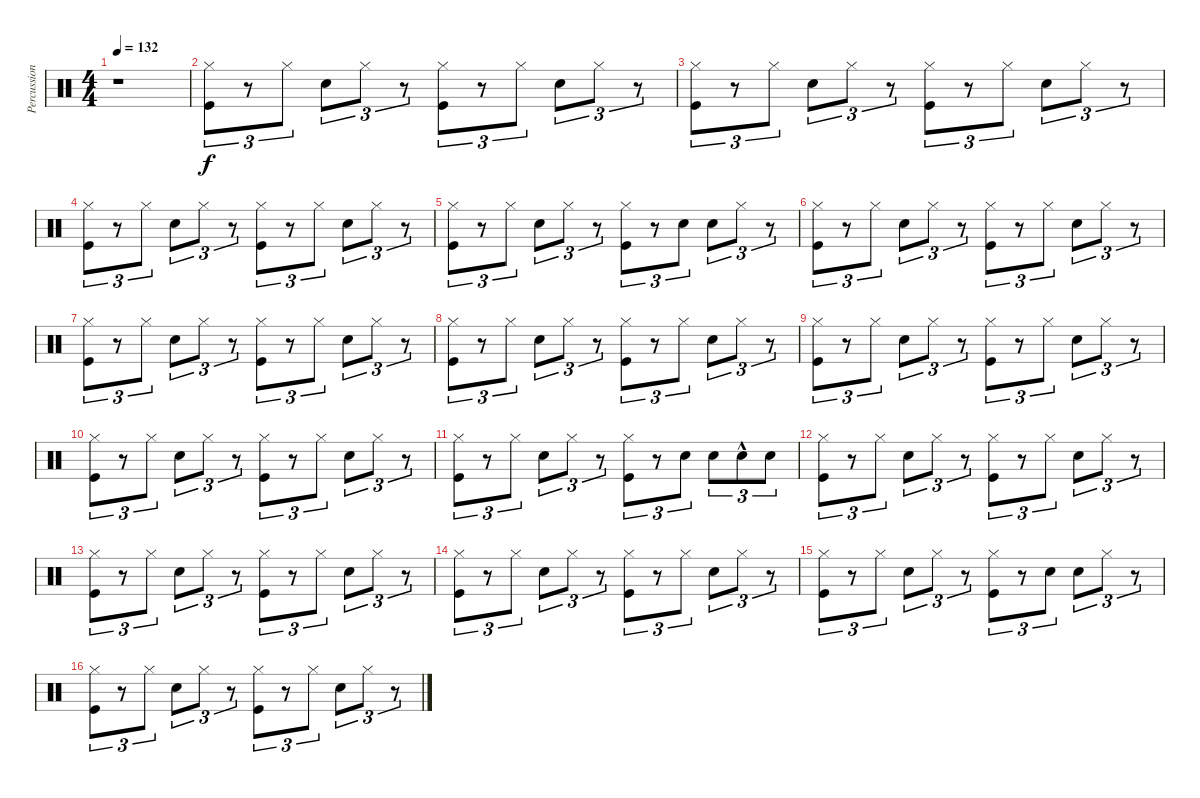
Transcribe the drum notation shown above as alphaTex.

\track ("Percussions" "Percussion") {instrument percussion}
\staff {score}
\articulation defaults
\ts (4 4)
\tempo 132
\clef neutral
\ks c
r.1{dy f} |
("Kick (hit)" "Hi-Hat (closed)").8{tu (3 2)} r.8{tu (3 2)} "Hi-Hat (closed)".8{tu (3 2)} "Snare (hit) 2".8{tu (3 2)} "Hi-Hat (closed)".8{tu (3 2)} r.8{tu (3 2)} ("Kick (hit)" "Hi-Hat (closed)").8{tu (3 2)} r.8{tu (3 2)} "Hi-Hat (closed)".8{tu (3 2)} "Snare (hit) 2".8{tu (3 2)} "Hi-Hat (closed)".8{tu (3 2)} r.8{tu (3 2)} |
("Kick (hit)" "Hi-Hat (closed)").8{tu (3 2)} r.8{tu (3 2)} "Hi-Hat (closed)".8{tu (3 2)} "Snare (hit) 2".8{tu (3 2)} "Hi-Hat (closed)".8{tu (3 2)} r.8{tu (3 2)} ("Kick (hit)" "Hi-Hat (closed)").8{tu (3 2)} r.8{tu (3 2)} "Hi-Hat (closed)".8{tu (3 2)} "Snare (hit) 2".8{tu (3 2)} "Hi-Hat (closed)".8{tu (3 2)} r.8{tu (3 2)} |
("Kick (hit)" "Hi-Hat (closed)").8{tu (3 2)} r.8{tu (3 2)} "Hi-Hat (closed)".8{tu (3 2)} "Snare (hit) 2".8{tu (3 2)} "Hi-Hat (closed)".8{tu (3 2)} r.8{tu (3 2)} ("Kick (hit)" "Hi-Hat (closed)").8{tu (3 2)} r.8{tu (3 2)} "Hi-Hat (closed)".8{tu (3 2)} "Snare (hit) 2".8{tu (3 2)} "Hi-Hat (closed)".8{tu (3 2)} r.8{tu (3 2)} |
("Kick (hit)" "Hi-Hat (closed)").8{tu (3 2)} r.8{tu (3 2)} "Hi-Hat (closed)".8{tu (3 2)} "Snare (hit) 2".8{tu (3 2)} "Hi-Hat (closed)".8{tu (3 2)} r.8{tu (3 2)} ("Kick (hit)" "Hi-Hat (closed)").8{tu (3 2)} r.8{tu (3 2)} "Snare (hit) 2".8{tu (3 2)} "Snare (hit) 2".8{tu (3 2)} "Hi-Hat (closed)".8{tu (3 2)} r.8{tu (3 2)} |
("Kick (hit)" "Hi-Hat (closed)").8{tu (3 2)} r.8{tu (3 2)} "Hi-Hat (closed)".8{tu (3 2)} "Snare (hit) 2".8{tu (3 2)} "Hi-Hat (closed)".8{tu (3 2)} r.8{tu (3 2)} ("Kick (hit)" "Hi-Hat (closed)").8{tu (3 2)} r.8{tu (3 2)} "Hi-Hat (closed)".8{tu (3 2)} "Snare (hit) 2".8{tu (3 2)} "Hi-Hat (closed)".8{tu (3 2)} r.8{tu (3 2)} |
("Kick (hit)" "Hi-Hat (closed)").8{tu (3 2)} r.8{tu (3 2)} "Hi-Hat (closed)".8{tu (3 2)} "Snare (hit) 2".8{tu (3 2)} "Hi-Hat (closed)".8{tu (3 2)} r.8{tu (3 2)} ("Kick (hit)" "Hi-Hat (closed)").8{tu (3 2)} r.8{tu (3 2)} "Hi-Hat (closed)".8{tu (3 2)} "Snare (hit) 2".8{tu (3 2)} "Hi-Hat (closed)".8{tu (3 2)} r.8{tu (3 2)} |
("Kick (hit)" "Hi-Hat (closed)").8{tu (3 2)} r.8{tu (3 2)} "Hi-Hat (closed)".8{tu (3 2)} "Snare (hit) 2".8{tu (3 2)} "Hi-Hat (closed)".8{tu (3 2)} r.8{tu (3 2)} ("Kick (hit)" "Hi-Hat (closed)").8{tu (3 2)} r.8{tu (3 2)} "Hi-Hat (closed)".8{tu (3 2)} "Snare (hit) 2".8{tu (3 2)} "Hi-Hat (closed)".8{tu (3 2)} r.8{tu (3 2)} |
("Kick (hit)" "Hi-Hat (closed)").8{tu (3 2)} r.8{tu (3 2)} "Hi-Hat (closed)".8{tu (3 2)} "Snare (hit) 2".8{tu (3 2)} "Hi-Hat (closed)".8{tu (3 2)} r.8{tu (3 2)} ("Kick (hit)" "Hi-Hat (closed)").8{tu (3 2)} r.8{tu (3 2)} "Hi-Hat (closed)".8{tu (3 2)} "Snare (hit) 2".8{tu (3 2)} "Hi-Hat (closed)".8{tu (3 2)} r.8{tu (3 2)} |
("Kick (hit)" "Hi-Hat (closed)").8{tu (3 2)} r.8{tu (3 2)} "Hi-Hat (closed)".8{tu (3 2)} "Snare (hit) 2".8{tu (3 2)} "Hi-Hat (closed)".8{tu (3 2)} r.8{tu (3 2)} ("Kick (hit)" "Hi-Hat (closed)").8{tu (3 2)} r.8{tu (3 2)} "Hi-Hat (closed)".8{tu (3 2)} "Snare (hit) 2".8{tu (3 2)} "Hi-Hat (closed)".8{tu (3 2)} r.8{tu (3 2)} |
("Kick (hit)" "Hi-Hat (closed)").8{tu (3 2)} r.8{tu (3 2)} "Hi-Hat (closed)".8{tu (3 2)} "Snare (hit) 2".8{tu (3 2)} "Hi-Hat (closed)".8{tu (3 2)} r.8{tu (3 2)} ("Kick (hit)" "Hi-Hat (closed)").8{tu (3 2)} r.8{tu (3 2)} "Snare (hit) 2".8{tu (3 2)} "Snare (hit) 2".8{tu (3 2)} "Snare (hit) 2"{hac}.8{tu (3 2)} "Snare (hit) 2".8{tu (3 2)} |
("Kick (hit)" "Hi-Hat (closed)").8{tu (3 2)} r.8{tu (3 2)} "Hi-Hat (closed)".8{tu (3 2)} "Snare (hit) 2".8{tu (3 2)} "Hi-Hat (closed)".8{tu (3 2)} r.8{tu (3 2)} ("Kick (hit)" "Hi-Hat (closed)").8{tu (3 2)} r.8{tu (3 2)} "Hi-Hat (closed)".8{tu (3 2)} "Snare (hit) 2".8{tu (3 2)} "Hi-Hat (closed)".8{tu (3 2)} r.8{tu (3 2)} |
("Kick (hit)" "Hi-Hat (closed)").8{tu (3 2)} r.8{tu (3 2)} "Hi-Hat (closed)".8{tu (3 2)} "Snare (hit) 2".8{tu (3 2)} "Hi-Hat (closed)".8{tu (3 2)} r.8{tu (3 2)} ("Kick (hit)" "Hi-Hat (closed)").8{tu (3 2)} r.8{tu (3 2)} "Hi-Hat (closed)".8{tu (3 2)} "Snare (hit) 2".8{tu (3 2)} "Hi-Hat (closed)".8{tu (3 2)} r.8{tu (3 2)} |
("Kick (hit)" "Hi-Hat (closed)").8{tu (3 2)} r.8{tu (3 2)} "Hi-Hat (closed)".8{tu (3 2)} "Snare (hit) 2".8{tu (3 2)} "Hi-Hat (closed)".8{tu (3 2)} r.8{tu (3 2)} ("Kick (hit)" "Hi-Hat (closed)").8{tu (3 2)} r.8{tu (3 2)} "Hi-Hat (closed)".8{tu (3 2)} "Snare (hit) 2".8{tu (3 2)} "Hi-Hat (closed)".8{tu (3 2)} r.8{tu (3 2)} |
("Kick (hit)" "Hi-Hat (closed)").8{tu (3 2)} r.8{tu (3 2)} "Hi-Hat (closed)".8{tu (3 2)} "Snare (hit) 2".8{tu (3 2)} "Hi-Hat (closed)".8{tu (3 2)} r.8{tu (3 2)} ("Kick (hit)" "Hi-Hat (closed)").8{tu (3 2)} r.8{tu (3 2)} "Snare (hit) 2".8{tu (3 2)} "Snare (hit) 2".8{tu (3 2)} "Hi-Hat (closed)".8{tu (3 2)} r.8{tu (3 2)} |
("Kick (hit)" "Hi-Hat (closed)").8{tu (3 2)} r.8{tu (3 2)} "Hi-Hat (closed)".8{tu (3 2)} "Snare (hit) 2".8{tu (3 2)} "Hi-Hat (closed)".8{tu (3 2)} r.8{tu (3 2)} ("Kick (hit)" "Hi-Hat (closed)").8{tu (3 2)} r.8{tu (3 2)} "Hi-Hat (closed)".8{tu (3 2)} "Snare (hit) 2".8{tu (3 2)} "Hi-Hat (closed)".8{tu (3 2)} r.8{tu (3 2)}
